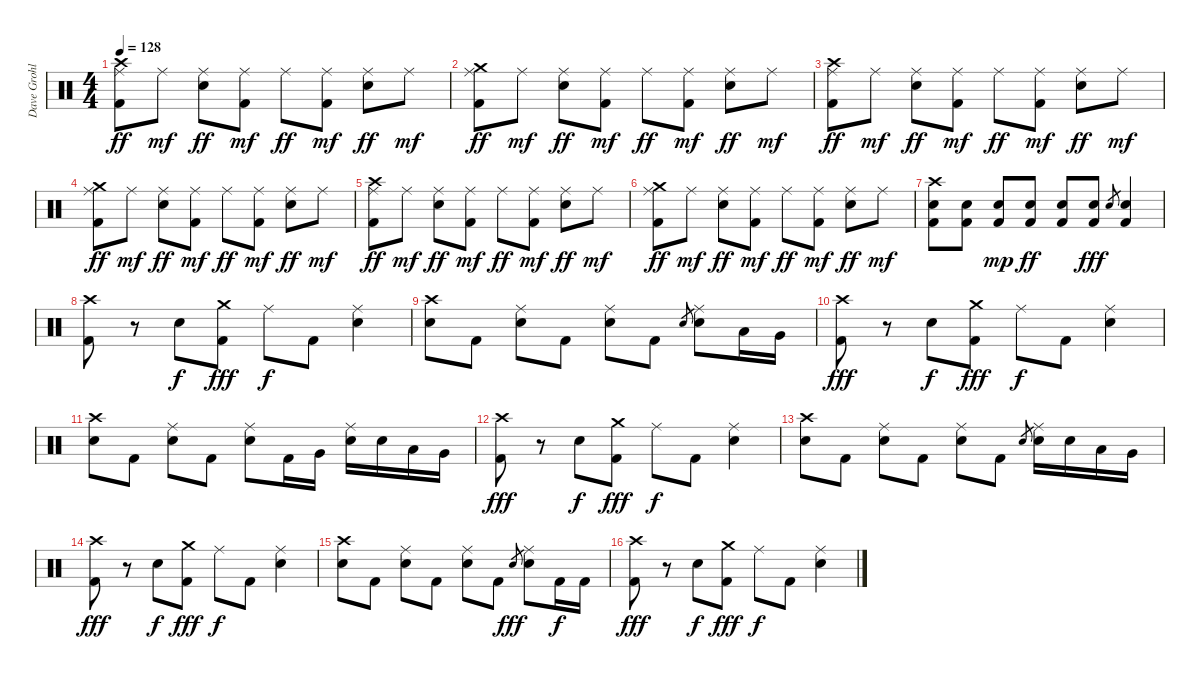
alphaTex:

\track ("Dave Grohl" "Dave Grohl") {instrument percussion}
\staff {score}
\articulation defaults
\ts (4 4)
\tempo 128
\clef neutral
\ks c
("Crash high (hit)" "Ride (middle)" "Kick (hit) 2").8{dy ff} "Ride (middle)".8{dy mf} ("Ride (middle)" "Snare (hit) 2").8{dy ff} ("Ride (middle)" "Kick (hit) 2").8{dy mf} "Ride (middle)".8{dy ff} ("Ride (middle)" "Kick (hit) 2").8{dy mf} ("Ride (middle)" "Snare (hit) 2").8{dy ff} "Ride (middle)".8{dy mf} |
("Crash medium (hit)" "Ride (middle)" "Kick (hit) 2").8{dy ff} "Ride (middle)".8{dy mf} ("Ride (middle)" "Snare (hit) 2").8{dy ff} ("Ride (middle)" "Kick (hit) 2").8{dy mf} "Ride (middle)".8{dy ff} ("Ride (middle)" "Kick (hit) 2").8{dy mf} ("Ride (middle)" "Snare (hit) 2").8{dy ff} "Ride (middle)".8{dy mf} |
("Crash high (hit)" "Ride (middle)" "Kick (hit) 2").8{dy ff} "Ride (middle)".8{dy mf} ("Ride (middle)" "Snare (hit) 2").8{dy ff} ("Ride (middle)" "Kick (hit) 2").8{dy mf} "Ride (middle)".8{dy ff} ("Ride (middle)" "Kick (hit) 2").8{dy mf} ("Ride (middle)" "Snare (hit) 2").8{dy ff} "Ride (middle)".8{dy mf} |
("Crash medium (hit)" "Ride (middle)" "Kick (hit) 2").8{dy ff} "Ride (middle)".8{dy mf} ("Ride (middle)" "Snare (hit) 2").8{dy ff} ("Ride (middle)" "Kick (hit) 2").8{dy mf} "Ride (middle)".8{dy ff} ("Ride (middle)" "Kick (hit) 2").8{dy mf} ("Ride (middle)" "Snare (hit) 2").8{dy ff} "Ride (middle)".8{dy mf} |
("Crash high (hit)" "Ride (middle)" "Kick (hit) 2").8{dy ff} "Ride (middle)".8{dy mf} ("Ride (middle)" "Snare (hit) 2").8{dy ff} ("Ride (middle)" "Kick (hit) 2").8{dy mf} "Ride (middle)".8{dy ff} ("Ride (middle)" "Kick (hit) 2").8{dy mf} ("Ride (middle)" "Snare (hit) 2").8{dy ff} "Ride (middle)".8{dy mf} |
("Crash medium (hit)" "Ride (middle)" "Kick (hit) 2").8{dy ff} "Ride (middle)".8{dy mf} ("Ride (middle)" "Snare (hit) 2").8{dy ff} ("Ride (middle)" "Kick (hit) 2").8{dy mf} "Ride (middle)".8{dy ff} ("Ride (middle)" "Kick (hit) 2").8{dy mf} ("Ride (middle)" "Snare (hit) 2").8{dy ff} "Ride (middle)".8{dy mf} |
("Crash high (hit)" "Snare (hit) 2" "Kick (hit) 2").8 ("Snare (hit) 2" "Kick (hit) 2").8 ("Snare (hit) 2" "Kick (hit) 2").8{dy mp} ("Snare (hit) 2" "Kick (hit) 2").8{dy ff} ("Snare (hit) 2" "Kick (hit) 2").8 ("Snare (hit) 2" "Kick (hit) 2").8{dy fff} "Snare (hit) 2".8{gr} ("Snare (hit) 2" "Kick (hit) 2").4 |
("Crash high (hit)" "Kick (hit) 2").8 r.8 "Snare (hit) 2".8{dy f} ("Crash medium (hit)" "Kick (hit) 2").8{dy fff} "Ride (middle)".8{dy f} "Kick (hit) 2".8 ("Ride (middle)" "Snare (hit) 2").4 |
("Crash high (hit)" "Snare (hit) 2").8 "Kick (hit) 2".8 ("Ride (middle)" "Snare (hit) 2").8 "Kick (hit) 2".8 ("Ride (middle)" "Snare (hit) 2").8 "Kick (hit) 2".8 "Snare (hit) 2".8{gr} ("Ride (middle)" "Snare (hit) 2").8 "Low Tom (hit)".16 "Very Low Tom (hit)".16 |
("Crash high (hit)" "Kick (hit) 2").8{dy fff} r.8 "Snare (hit) 2".8{dy f} ("Crash medium (hit)" "Kick (hit) 2").8{dy fff} "Ride (middle)".8{dy f} "Kick (hit) 2".8 ("Ride (middle)" "Snare (hit) 2").4 |
("Crash high (hit)" "Snare (hit) 2").8 "Kick (hit) 2".8 ("Ride (middle)" "Snare (hit) 2").8 "Kick (hit) 2".8 ("Ride (middle)" "Snare (hit) 2").8 "Kick (hit) 2".16 "Very Low Tom (hit)".16 ("Ride (middle)" "Snare (hit) 2").16 "Snare (hit) 2".16 "Low Tom (hit)".16 "Very Low Tom (hit)".16 |
("Crash high (hit)" "Kick (hit) 2").8{dy fff} r.8 "Snare (hit) 2".8{dy f} ("Crash medium (hit)" "Kick (hit) 2").8{dy fff} "Ride (middle)".8{dy f} "Kick (hit) 2".8 ("Ride (middle)" "Snare (hit) 2").4 |
("Crash high (hit)" "Snare (hit) 2").8 "Kick (hit) 2".8 ("Ride (middle)" "Snare (hit) 2").8 "Kick (hit) 2".8 ("Ride (middle)" "Snare (hit) 2").8 "Kick (hit) 2".8 "Snare (hit) 2".8{gr} ("Ride (middle)" "Snare (hit) 2").16 "Snare (hit) 2".16 "Low Tom (hit)".16 "Very Low Tom (hit)".16 |
("Crash high (hit)" "Kick (hit) 2").8{dy fff} r.8 "Snare (hit) 2".8{dy f} ("Crash medium (hit)" "Kick (hit) 2").8{dy fff} "Ride (middle)".8{dy f} "Kick (hit) 2".8 ("Ride (middle)" "Snare (hit) 2").4 |
("Crash high (hit)" "Snare (hit) 2").8 "Kick (hit) 2".8 ("Ride (middle)" "Snare (hit) 2").8 "Kick (hit) 2".8 ("Ride (middle)" "Snare (hit) 2").8 "Kick (hit) 2".8 "Snare (hit) 2".8{gr dy fff} ("Ride (middle)" "Snare (hit) 2").8 "Kick (hit) 2".16{dy f} "Kick (hit) 2".16 |
("Crash high (hit)" "Kick (hit) 2").8{dy fff} r.8 "Snare (hit) 2".8{dy f} ("Crash medium (hit)" "Kick (hit) 2").8{dy fff} "Ride (middle)".8{dy f} "Kick (hit) 2".8 ("Ride (middle)" "Snare (hit) 2").4
